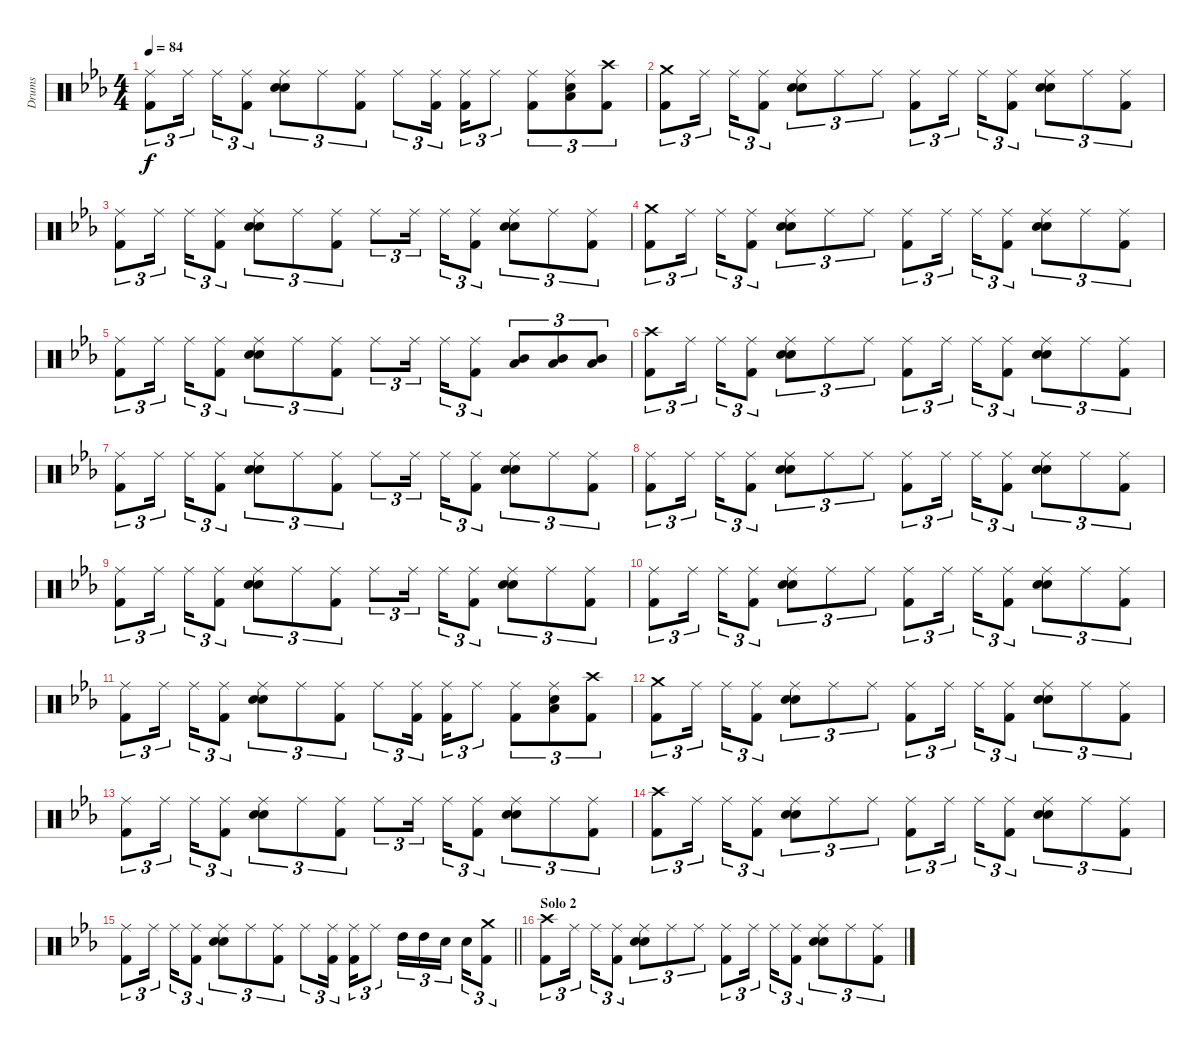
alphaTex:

\track ("Drums" "Drums") {instrument percussion}
\staff {score}
\articulation defaults
\ts (4 4)
\tempo 84
\clef neutral
\ks eb
("Ride (middle)" "Kick (hit) 2").8{tu (3 2) dy f} "Ride (middle)".16{tu (3 2)} "Ride (middle)".16{tu (3 2)} ("Ride (middle)" "Kick (hit) 2").8{tu (3 2)} ("Ride (middle)" "Hand Clap (hit)" "Electric Snare (hit)").8{tu (3 2)} "Ride (middle)".8{tu (3 2)} ("Ride (middle)" "Kick (hit) 2").8{tu (3 2)} "Ride (middle)".8{tu (3 2)} ("Ride (middle)" "Kick (hit) 2").16{tu (3 2)} ("Ride (middle)" "Kick (hit) 2").16{tu (3 2)} "Ride (middle)".8{tu (3 2)} ("Ride (middle)" "Kick (hit) 2").8{tu (3 2)} ("Ride (middle)" "Low Tom (hit)" "Electric Snare (hit)").8{tu (3 2)} ("Crash high (hit)" "Kick (hit) 2").8{tu (3 2)} |
("Crash medium (hit)" "Kick (hit) 2").8{tu (3 2)} "Ride (middle)".16{tu (3 2)} "Ride (middle)".16{tu (3 2)} ("Ride (middle)" "Kick (hit) 2").8{tu (3 2)} ("Ride (middle)" "Hand Clap (hit)" "Electric Snare (hit)").8{tu (3 2)} "Ride (middle)".8{tu (3 2)} "Ride (middle)".8{tu (3 2)} ("Ride (middle)" "Kick (hit) 2").8{tu (3 2)} "Ride (middle)".16{tu (3 2)} "Ride (middle)".16{tu (3 2)} ("Ride (middle)" "Kick (hit) 2").8{tu (3 2)} ("Ride (middle)" "Hand Clap (hit)" "Electric Snare (hit)").8{tu (3 2)} "Ride (middle)".8{tu (3 2)} ("Ride (middle)" "Kick (hit) 2").8{tu (3 2)} |
("Ride (middle)" "Kick (hit) 2").8{tu (3 2)} "Ride (middle)".16{tu (3 2)} "Ride (middle)".16{tu (3 2)} ("Ride (middle)" "Kick (hit) 2").8{tu (3 2)} ("Ride (middle)" "Hand Clap (hit)" "Electric Snare (hit)").8{tu (3 2)} "Ride (middle)".8{tu (3 2)} ("Ride (middle)" "Kick (hit) 2").8{tu (3 2)} "Ride (middle)".8{tu (3 2)} "Ride (middle)".16{tu (3 2)} "Ride (middle)".16{tu (3 2)} ("Ride (middle)" "Kick (hit) 2").8{tu (3 2)} ("Ride (middle)" "Hand Clap (hit)" "Electric Snare (hit)").8{tu (3 2)} "Ride (middle)".8{tu (3 2)} ("Ride (middle)" "Kick (hit) 2").8{tu (3 2)} |
("Crash medium (hit)" "Kick (hit) 2").8{tu (3 2)} "Ride (middle)".16{tu (3 2)} "Ride (middle)".16{tu (3 2)} ("Ride (middle)" "Kick (hit) 2").8{tu (3 2)} ("Ride (middle)" "Hand Clap (hit)" "Electric Snare (hit)").8{tu (3 2)} "Ride (middle)".8{tu (3 2)} "Ride (middle)".8{tu (3 2)} ("Ride (middle)" "Kick (hit) 2").8{tu (3 2)} "Ride (middle)".16{tu (3 2)} "Ride (middle)".16{tu (3 2)} ("Ride (middle)" "Kick (hit) 2").8{tu (3 2)} ("Ride (middle)" "Hand Clap (hit)" "Electric Snare (hit)").8{tu (3 2)} "Ride (middle)".8{tu (3 2)} ("Ride (middle)" "Kick (hit) 2").8{tu (3 2)} |
("Ride (middle)" "Kick (hit) 2").8{tu (3 2)} "Ride (middle)".16{tu (3 2)} "Ride (middle)".16{tu (3 2)} ("Ride (middle)" "Kick (hit) 2").8{tu (3 2)} ("Ride (middle)" "Hand Clap (hit)" "Electric Snare (hit)").8{tu (3 2)} "Ride (middle)".8{tu (3 2)} ("Ride (middle)" "Kick (hit) 2").8{tu (3 2)} "Ride (middle)".8{tu (3 2)} "Ride (middle)".16{tu (3 2)} "Ride (middle)".16{tu (3 2)} ("Ride (middle)" "Kick (hit) 2").8{tu (3 2)} ("Mid Tom (hit)" "Low Tom (hit)").8{tu (3 2)} ("Mid Tom (hit)" "Low Tom (hit)").8{tu (3 2)} ("Mid Tom (hit)" "Low Tom (hit)").8{tu (3 2)} |
("Crash high (hit)" "Kick (hit) 2").8{tu (3 2)} "Ride (middle)".16{tu (3 2)} "Ride (middle)".16{tu (3 2)} ("Ride (middle)" "Kick (hit) 2").8{tu (3 2)} ("Ride (middle)" "Hand Clap (hit)" "Electric Snare (hit)").8{tu (3 2)} "Ride (middle)".8{tu (3 2)} "Ride (middle)".8{tu (3 2)} ("Ride (middle)" "Kick (hit) 2").8{tu (3 2)} "Ride (middle)".16{tu (3 2)} "Ride (middle)".16{tu (3 2)} ("Ride (middle)" "Kick (hit) 2").8{tu (3 2)} ("Ride (middle)" "Hand Clap (hit)" "Electric Snare (hit)").8{tu (3 2)} "Ride (middle)".8{tu (3 2)} ("Ride (middle)" "Kick (hit) 2").8{tu (3 2)} |
("Ride (middle)" "Kick (hit) 2").8{tu (3 2)} "Ride (middle)".16{tu (3 2)} "Ride (middle)".16{tu (3 2)} ("Ride (middle)" "Kick (hit) 2").8{tu (3 2)} ("Ride (middle)" "Hand Clap (hit)" "Electric Snare (hit)").8{tu (3 2)} "Ride (middle)".8{tu (3 2)} ("Ride (middle)" "Kick (hit) 2").8{tu (3 2)} "Ride (middle)".8{tu (3 2)} "Ride (middle)".16{tu (3 2)} "Ride (middle)".16{tu (3 2)} ("Ride (middle)" "Kick (hit) 2").8{tu (3 2)} ("Ride (middle)" "Hand Clap (hit)" "Electric Snare (hit)").8{tu (3 2)} "Ride (middle)".8{tu (3 2)} ("Ride (middle)" "Kick (hit) 2").8{tu (3 2)} |
("Ride (middle)" "Kick (hit) 2").8{tu (3 2)} "Ride (middle)".16{tu (3 2)} "Ride (middle)".16{tu (3 2)} ("Ride (middle)" "Kick (hit) 2").8{tu (3 2)} ("Ride (middle)" "Hand Clap (hit)" "Electric Snare (hit)").8{tu (3 2)} "Ride (middle)".8{tu (3 2)} "Ride (middle)".8{tu (3 2)} ("Ride (middle)" "Kick (hit) 2").8{tu (3 2)} "Ride (middle)".16{tu (3 2)} "Ride (middle)".16{tu (3 2)} ("Ride (middle)" "Kick (hit) 2").8{tu (3 2)} ("Ride (middle)" "Hand Clap (hit)" "Electric Snare (hit)").8{tu (3 2)} "Ride (middle)".8{tu (3 2)} ("Ride (middle)" "Kick (hit) 2").8{tu (3 2)} |
("Ride (middle)" "Kick (hit) 2").8{tu (3 2)} "Ride (middle)".16{tu (3 2)} "Ride (middle)".16{tu (3 2)} ("Ride (middle)" "Kick (hit) 2").8{tu (3 2)} ("Ride (middle)" "Hand Clap (hit)" "Electric Snare (hit)").8{tu (3 2)} "Ride (middle)".8{tu (3 2)} ("Ride (middle)" "Kick (hit) 2").8{tu (3 2)} "Ride (middle)".8{tu (3 2)} "Ride (middle)".16{tu (3 2)} "Ride (middle)".16{tu (3 2)} ("Ride (middle)" "Kick (hit) 2").8{tu (3 2)} ("Ride (middle)" "Hand Clap (hit)" "Electric Snare (hit)").8{tu (3 2)} "Ride (middle)".8{tu (3 2)} ("Ride (middle)" "Kick (hit) 2").8{tu (3 2)} |
("Ride (middle)" "Kick (hit) 2").8{tu (3 2)} "Ride (middle)".16{tu (3 2)} "Ride (middle)".16{tu (3 2)} ("Ride (middle)" "Kick (hit) 2").8{tu (3 2)} ("Ride (middle)" "Hand Clap (hit)" "Electric Snare (hit)").8{tu (3 2)} "Ride (middle)".8{tu (3 2)} "Ride (middle)".8{tu (3 2)} ("Ride (middle)" "Kick (hit) 2").8{tu (3 2)} "Ride (middle)".16{tu (3 2)} "Ride (middle)".16{tu (3 2)} ("Ride (middle)" "Kick (hit) 2").8{tu (3 2)} ("Ride (middle)" "Hand Clap (hit)" "Electric Snare (hit)").8{tu (3 2)} "Ride (middle)".8{tu (3 2)} ("Ride (middle)" "Kick (hit) 2").8{tu (3 2)} |
("Ride (middle)" "Kick (hit) 2").8{tu (3 2)} "Ride (middle)".16{tu (3 2)} "Ride (middle)".16{tu (3 2)} ("Ride (middle)" "Kick (hit) 2").8{tu (3 2)} ("Ride (middle)" "Hand Clap (hit)" "Electric Snare (hit)").8{tu (3 2)} "Ride (middle)".8{tu (3 2)} ("Ride (middle)" "Kick (hit) 2").8{tu (3 2)} "Ride (middle)".8{tu (3 2)} ("Ride (middle)" "Kick (hit) 2").16{tu (3 2)} ("Ride (middle)" "Kick (hit) 2").16{tu (3 2)} "Ride (middle)".8{tu (3 2)} ("Ride (middle)" "Kick (hit) 2").8{tu (3 2)} ("Ride (middle)" "Low Tom (hit)" "Electric Snare (hit)").8{tu (3 2)} ("Crash high (hit)" "Kick (hit) 2").8{tu (3 2)} |
("Crash medium (hit)" "Kick (hit) 2").8{tu (3 2)} "Ride (middle)".16{tu (3 2)} "Ride (middle)".16{tu (3 2)} ("Ride (middle)" "Kick (hit) 2").8{tu (3 2)} ("Ride (middle)" "Hand Clap (hit)" "Electric Snare (hit)").8{tu (3 2)} "Ride (middle)".8{tu (3 2)} "Ride (middle)".8{tu (3 2)} ("Ride (middle)" "Kick (hit) 2").8{tu (3 2)} "Ride (middle)".16{tu (3 2)} "Ride (middle)".16{tu (3 2)} ("Ride (middle)" "Kick (hit) 2").8{tu (3 2)} ("Ride (middle)" "Hand Clap (hit)" "Electric Snare (hit)").8{tu (3 2)} "Ride (middle)".8{tu (3 2)} ("Ride (middle)" "Kick (hit) 2").8{tu (3 2)} |
("Ride (middle)" "Kick (hit) 2").8{tu (3 2)} "Ride (middle)".16{tu (3 2)} "Ride (middle)".16{tu (3 2)} ("Ride (middle)" "Kick (hit) 2").8{tu (3 2)} ("Ride (middle)" "Hand Clap (hit)" "Electric Snare (hit)").8{tu (3 2)} "Ride (middle)".8{tu (3 2)} ("Ride (middle)" "Kick (hit) 2").8{tu (3 2)} "Ride (middle)".8{tu (3 2)} "Ride (middle)".16{tu (3 2)} "Ride (middle)".16{tu (3 2)} ("Ride (middle)" "Kick (hit) 2").8{tu (3 2)} ("Ride (middle)" "Hand Clap (hit)" "Electric Snare (hit)").8{tu (3 2)} "Ride (middle)".8{tu (3 2)} ("Ride (middle)" "Kick (hit) 2").8{tu (3 2)} |
("Crash high (hit)" "Kick (hit) 2").8{tu (3 2)} "Ride (middle)".16{tu (3 2)} "Ride (middle)".16{tu (3 2)} ("Ride (middle)" "Kick (hit) 2").8{tu (3 2)} ("Ride (middle)" "Hand Clap (hit)" "Electric Snare (hit)").8{tu (3 2)} "Ride (middle)".8{tu (3 2)} "Ride (middle)".8{tu (3 2)} ("Ride (middle)" "Kick (hit) 2").8{tu (3 2)} "Ride (middle)".16{tu (3 2)} "Ride (middle)".16{tu (3 2)} ("Ride (middle)" "Kick (hit) 2").8{tu (3 2)} ("Ride (middle)" "Hand Clap (hit)" "Electric Snare (hit)").8{tu (3 2)} "Ride (middle)".8{tu (3 2)} ("Ride (middle)" "Kick (hit) 2").8{tu (3 2)} |
\barLineRight lightlight
("Ride (middle)" "Kick (hit) 2").8{tu (3 2)} "Ride (middle)".16{tu (3 2)} "Ride (middle)".16{tu (3 2)} ("Ride (middle)" "Kick (hit) 2").8{tu (3 2)} ("Ride (middle)" "Hand Clap (hit)" "Electric Snare (hit)").8{tu (3 2)} "Ride (middle)".8{tu (3 2)} ("Ride (middle)" "Kick (hit) 2").8{tu (3 2)} "Ride (middle)".8{tu (3 2)} ("Ride (middle)" "Kick (hit) 2").16{tu (3 2)} ("Ride (middle)" "Kick (hit) 2").16{tu (3 2)} "Ride (middle)".8{tu (3 2)} "High Tom (hit)".16{tu (3 2)} "High Tom (hit)".16{tu (3 2)} "Electric Snare (hit)".16{tu (3 2)} "Electric Snare (hit)".16{tu (3 2)} ("Crash medium (hit)" "Kick (hit) 2").8{tu (3 2)} |
\section ("" "Solo 2")
("Crash high (hit)" "Kick (hit) 2").8{tu (3 2)} "Ride (middle)".16{tu (3 2)} "Ride (middle)".16{tu (3 2)} ("Ride (middle)" "Kick (hit) 2").8{tu (3 2)} ("Ride (middle)" "Hand Clap (hit)" "Electric Snare (hit)").8{tu (3 2)} "Ride (middle)".8{tu (3 2)} "Ride (middle)".8{tu (3 2)} ("Ride (middle)" "Kick (hit) 2").8{tu (3 2)} "Ride (middle)".16{tu (3 2)} "Ride (middle)".16{tu (3 2)} ("Ride (middle)" "Kick (hit) 2").8{tu (3 2)} ("Ride (middle)" "Hand Clap (hit)" "Electric Snare (hit)").8{tu (3 2)} "Ride (middle)".8{tu (3 2)} ("Ride (middle)" "Kick (hit) 2").8{tu (3 2)}
